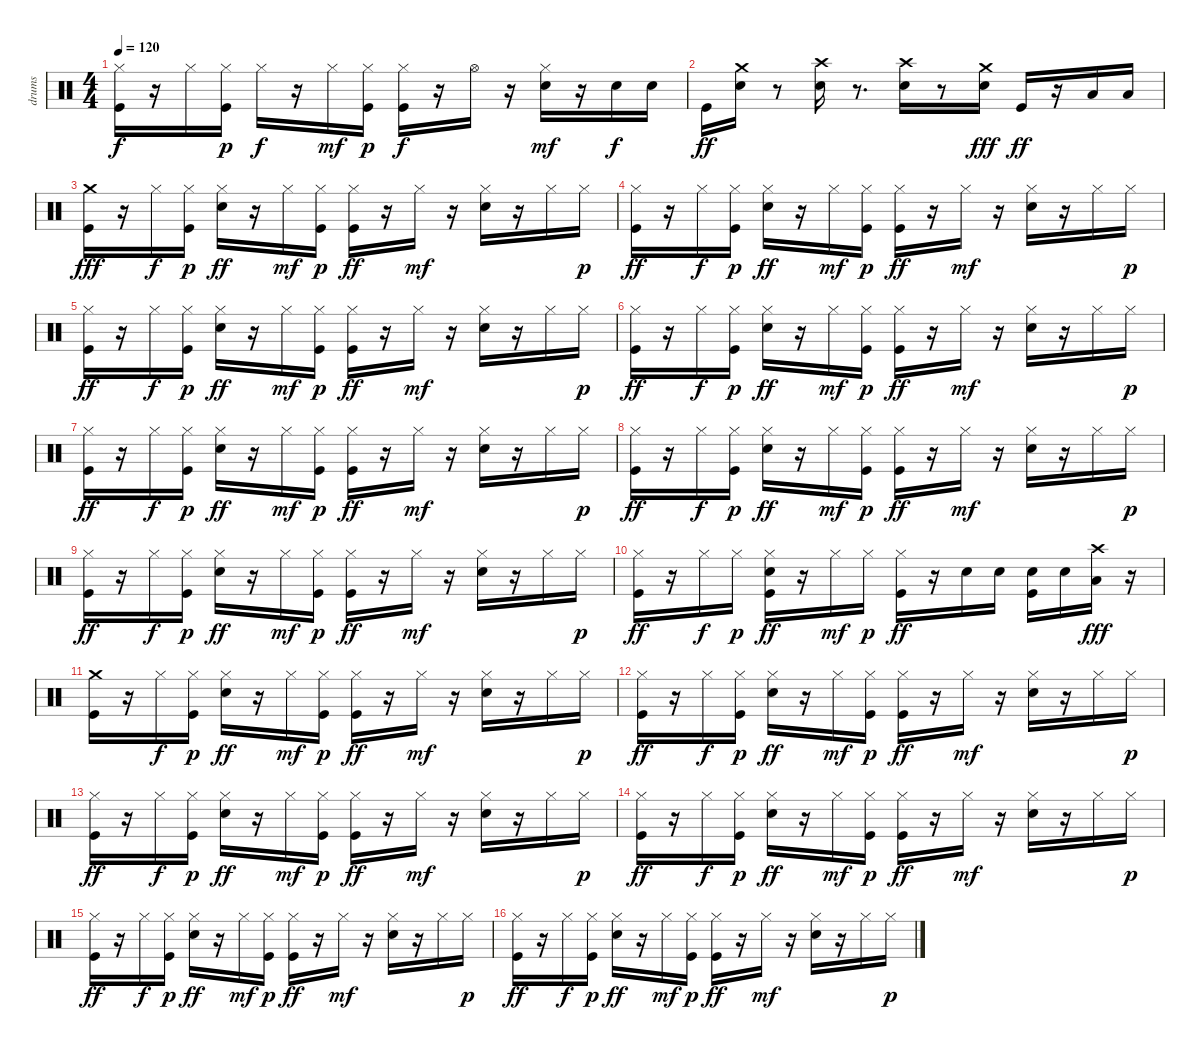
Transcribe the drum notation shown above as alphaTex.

\track ("drums" "drums") {instrument percussion}
\staff {score}
\articulation defaults
\ts (4 4)
\tempo 120
\clef neutral
\ks c
("Kick (hit)" "Hi-Hat (closed)").16{dy f} r.16 "Hi-Hat (closed)".16 ("Kick (hit)" "Hi-Hat (closed)").16{dy p} "Hi-Hat (closed)".16{dy f} r.16 "Hi-Hat (closed)".16{dy mf} ("Kick (hit)" "Hi-Hat (closed)").16{dy p} ("Kick (hit)" "Hi-Hat (closed)").16{dy f} r.16 "Hi-Hat (open)".16 r.16 ("Electric Snare (hit)" "Hi-Hat (closed)").16{dy mf} r.16 "Electric Snare (hit)".16{dy f} "Electric Snare (hit)".16 |
"Kick (hit)".16{dy ff} ("Electric Snare (hit)" "Crash medium (hit)").16 r.8 ("Electric Snare (hit)" "Crash high (hit)").16 r.8{d} ("Electric Snare (hit)" "Crash high (hit)").16 r.8 ("Electric Snare (hit)" "Crash medium (hit)").16{dy fff} "Kick (hit)".16{dy ff} r.16 "Low Tom (hit)".16 "Low Tom (hit)".16 |
("Kick (hit)" "Crash medium (hit)").16{dy fff} r.16 "Hi-Hat (closed)".16{dy f} ("Kick (hit)" "Hi-Hat (closed)").16{dy p} ("Electric Snare (hit)" "Hi-Hat (closed)").16{dy ff} r.16 "Hi-Hat (closed)".16{dy mf} ("Kick (hit)" "Hi-Hat (closed)").16{dy p} ("Kick (hit)" "Hi-Hat (closed)").16{dy ff} r.16 "Hi-Hat (closed)".16{dy mf} r.16 ("Electric Snare (hit)" "Hi-Hat (closed)").16 r.16 "Hi-Hat (closed)".16 "Hi-Hat (closed)".16{dy p} |
("Kick (hit)" "Hi-Hat (closed)").16{dy ff} r.16 "Hi-Hat (closed)".16{dy f} ("Kick (hit)" "Hi-Hat (closed)").16{dy p} ("Electric Snare (hit)" "Hi-Hat (closed)").16{dy ff} r.16 "Hi-Hat (closed)".16{dy mf} ("Kick (hit)" "Hi-Hat (closed)").16{dy p} ("Kick (hit)" "Hi-Hat (closed)").16{dy ff} r.16 "Hi-Hat (closed)".16{dy mf} r.16 ("Electric Snare (hit)" "Hi-Hat (closed)").16 r.16 "Hi-Hat (closed)".16 "Hi-Hat (closed)".16{dy p} |
("Kick (hit)" "Hi-Hat (closed)").16{dy ff} r.16 "Hi-Hat (closed)".16{dy f} ("Kick (hit)" "Hi-Hat (closed)").16{dy p} ("Electric Snare (hit)" "Hi-Hat (closed)").16{dy ff} r.16 "Hi-Hat (closed)".16{dy mf} ("Kick (hit)" "Hi-Hat (closed)").16{dy p} ("Kick (hit)" "Hi-Hat (closed)").16{dy ff} r.16 "Hi-Hat (closed)".16{dy mf} r.16 ("Electric Snare (hit)" "Hi-Hat (closed)").16 r.16 "Hi-Hat (closed)".16 "Hi-Hat (closed)".16{dy p} |
("Kick (hit)" "Hi-Hat (closed)").16{dy ff} r.16 "Hi-Hat (closed)".16{dy f} ("Kick (hit)" "Hi-Hat (closed)").16{dy p} ("Electric Snare (hit)" "Hi-Hat (closed)").16{dy ff} r.16 "Hi-Hat (closed)".16{dy mf} ("Kick (hit)" "Hi-Hat (closed)").16{dy p} ("Kick (hit)" "Hi-Hat (closed)").16{dy ff} r.16 "Hi-Hat (closed)".16{dy mf} r.16 ("Electric Snare (hit)" "Hi-Hat (closed)").16 r.16 "Hi-Hat (closed)".16 "Hi-Hat (closed)".16{dy p} |
("Kick (hit)" "Hi-Hat (closed)").16{dy ff} r.16 "Hi-Hat (closed)".16{dy f} ("Kick (hit)" "Hi-Hat (closed)").16{dy p} ("Electric Snare (hit)" "Hi-Hat (closed)").16{dy ff} r.16 "Hi-Hat (closed)".16{dy mf} ("Kick (hit)" "Hi-Hat (closed)").16{dy p} ("Kick (hit)" "Hi-Hat (closed)").16{dy ff} r.16 "Hi-Hat (closed)".16{dy mf} r.16 ("Electric Snare (hit)" "Hi-Hat (closed)").16 r.16 "Hi-Hat (closed)".16 "Hi-Hat (closed)".16{dy p} |
("Kick (hit)" "Hi-Hat (closed)").16{dy ff} r.16 "Hi-Hat (closed)".16{dy f} ("Kick (hit)" "Hi-Hat (closed)").16{dy p} ("Electric Snare (hit)" "Hi-Hat (closed)").16{dy ff} r.16 "Hi-Hat (closed)".16{dy mf} ("Kick (hit)" "Hi-Hat (closed)").16{dy p} ("Kick (hit)" "Hi-Hat (closed)").16{dy ff} r.16 "Hi-Hat (closed)".16{dy mf} r.16 ("Electric Snare (hit)" "Hi-Hat (closed)").16 r.16 "Hi-Hat (closed)".16 "Hi-Hat (closed)".16{dy p} |
("Kick (hit)" "Hi-Hat (closed)").16{dy ff} r.16 "Hi-Hat (closed)".16{dy f} ("Kick (hit)" "Hi-Hat (closed)").16{dy p} ("Electric Snare (hit)" "Hi-Hat (closed)").16{dy ff} r.16 "Hi-Hat (closed)".16{dy mf} ("Kick (hit)" "Hi-Hat (closed)").16{dy p} ("Kick (hit)" "Hi-Hat (closed)").16{dy ff} r.16 "Hi-Hat (closed)".16{dy mf} r.16 ("Electric Snare (hit)" "Hi-Hat (closed)").16 r.16 "Hi-Hat (closed)".16 "Hi-Hat (closed)".16{dy p} |
("Kick (hit)" "Hi-Hat (closed)").16{dy ff} r.16 "Hi-Hat (closed)".16{dy f} "Hi-Hat (closed)".16{dy p} ("Electric Snare (hit)" "Kick (hit)" "Hi-Hat (closed)").16{dy ff} r.16 "Hi-Hat (closed)".16{dy mf} "Hi-Hat (closed)".16{dy p} ("Kick (hit)" "Hi-Hat (closed)").16{dy ff} r.16 "Electric Snare (hit)".16 "Electric Snare (hit)".16 ("Electric Snare (hit)" "Kick (hit)").16 "Electric Snare (hit)".16 ("Low Tom (hit)" "Crash high (hit)").16{dy fff} r.16 |
("Kick (hit)" "Crash medium (hit)").16 r.16 "Hi-Hat (closed)".16{dy f} ("Kick (hit)" "Hi-Hat (closed)").16{dy p} ("Electric Snare (hit)" "Hi-Hat (closed)").16{dy ff} r.16 "Hi-Hat (closed)".16{dy mf} ("Kick (hit)" "Hi-Hat (closed)").16{dy p} ("Kick (hit)" "Hi-Hat (closed)").16{dy ff} r.16 "Hi-Hat (closed)".16{dy mf} r.16 ("Electric Snare (hit)" "Hi-Hat (closed)").16 r.16 "Hi-Hat (closed)".16 "Hi-Hat (closed)".16{dy p} |
("Kick (hit)" "Hi-Hat (closed)").16{dy ff} r.16 "Hi-Hat (closed)".16{dy f} ("Kick (hit)" "Hi-Hat (closed)").16{dy p} ("Electric Snare (hit)" "Hi-Hat (closed)").16{dy ff} r.16 "Hi-Hat (closed)".16{dy mf} ("Kick (hit)" "Hi-Hat (closed)").16{dy p} ("Kick (hit)" "Hi-Hat (closed)").16{dy ff} r.16 "Hi-Hat (closed)".16{dy mf} r.16 ("Electric Snare (hit)" "Hi-Hat (closed)").16 r.16 "Hi-Hat (closed)".16 "Hi-Hat (closed)".16{dy p} |
("Kick (hit)" "Hi-Hat (closed)").16{dy ff} r.16 "Hi-Hat (closed)".16{dy f} ("Kick (hit)" "Hi-Hat (closed)").16{dy p} ("Electric Snare (hit)" "Hi-Hat (closed)").16{dy ff} r.16 "Hi-Hat (closed)".16{dy mf} ("Kick (hit)" "Hi-Hat (closed)").16{dy p} ("Kick (hit)" "Hi-Hat (closed)").16{dy ff} r.16 "Hi-Hat (closed)".16{dy mf} r.16 ("Electric Snare (hit)" "Hi-Hat (closed)").16 r.16 "Hi-Hat (closed)".16 "Hi-Hat (closed)".16{dy p} |
("Kick (hit)" "Hi-Hat (closed)").16{dy ff} r.16 "Hi-Hat (closed)".16{dy f} ("Kick (hit)" "Hi-Hat (closed)").16{dy p} ("Electric Snare (hit)" "Hi-Hat (closed)").16{dy ff} r.16 "Hi-Hat (closed)".16{dy mf} ("Kick (hit)" "Hi-Hat (closed)").16{dy p} ("Kick (hit)" "Hi-Hat (closed)").16{dy ff} r.16 "Hi-Hat (closed)".16{dy mf} r.16 ("Electric Snare (hit)" "Hi-Hat (closed)").16 r.16 "Hi-Hat (closed)".16 "Hi-Hat (closed)".16{dy p} |
("Kick (hit)" "Hi-Hat (closed)").16{dy ff} r.16 "Hi-Hat (closed)".16{dy f} ("Kick (hit)" "Hi-Hat (closed)").16{dy p} ("Electric Snare (hit)" "Hi-Hat (closed)").16{dy ff} r.16 "Hi-Hat (closed)".16{dy mf} ("Kick (hit)" "Hi-Hat (closed)").16{dy p} ("Kick (hit)" "Hi-Hat (closed)").16{dy ff} r.16 "Hi-Hat (closed)".16{dy mf} r.16 ("Electric Snare (hit)" "Hi-Hat (closed)").16 r.16 "Hi-Hat (closed)".16 "Hi-Hat (closed)".16{dy p} |
("Kick (hit)" "Hi-Hat (closed)").16{dy ff} r.16 "Hi-Hat (closed)".16{dy f} ("Kick (hit)" "Hi-Hat (closed)").16{dy p} ("Electric Snare (hit)" "Hi-Hat (closed)").16{dy ff} r.16 "Hi-Hat (closed)".16{dy mf} ("Kick (hit)" "Hi-Hat (closed)").16{dy p} ("Kick (hit)" "Hi-Hat (closed)").16{dy ff} r.16 "Hi-Hat (closed)".16{dy mf} r.16 ("Electric Snare (hit)" "Hi-Hat (closed)").16 r.16 "Hi-Hat (closed)".16 "Hi-Hat (closed)".16{dy p}
